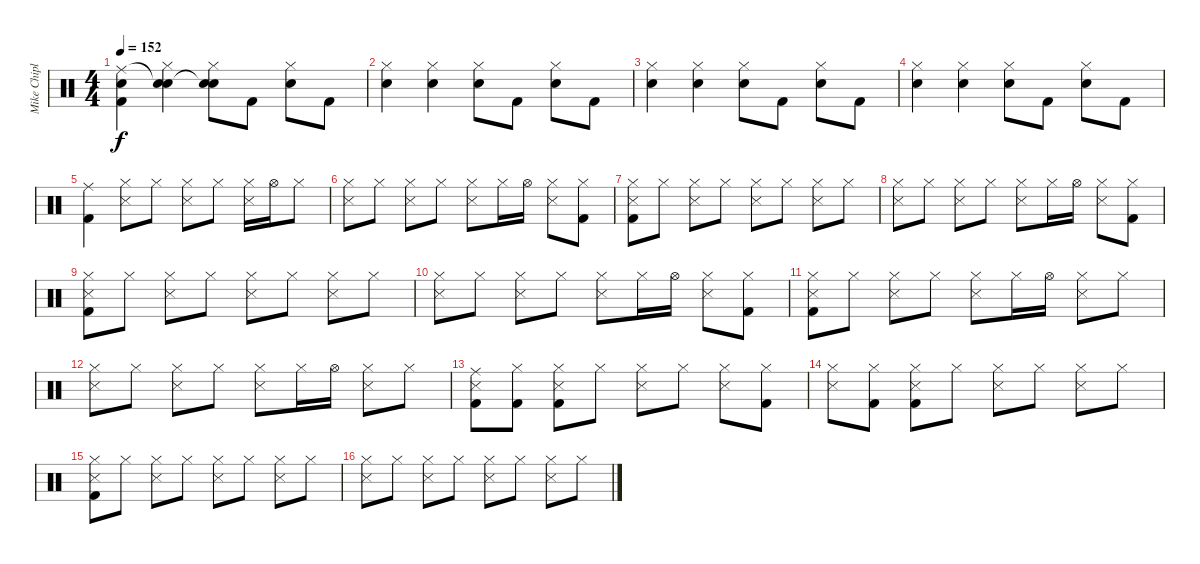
\track ("Mike Chiplin" "Mike Chipl") {instrument percussion}
\staff {score}
\articulation defaults
\ts (4 4)
\tempo 152
\clef neutral
\ks c
("Ride (middle)" "Snare (hit) 2" "Kick (hit) 2").4{dy f} ("Snare (hit)"{t} "Hi-Hat (closed)" "Snare (hit) 2").4 ("Snare (hit)"{t} "Hi-Hat (closed)" "Snare (hit) 2").8 "Kick (hit) 2".8 ("Hi-Hat (closed)" "Snare (hit) 2").8 "Kick (hit) 2".8 |
("Hi-Hat (closed)" "Snare (hit) 2").4 ("Hi-Hat (closed)" "Snare (hit) 2").4 ("Hi-Hat (closed)" "Snare (hit) 2").8 "Kick (hit) 2".8 ("Hi-Hat (closed)" "Snare (hit) 2").8 "Kick (hit) 2".8 |
("Hi-Hat (closed)" "Snare (hit) 2").4 ("Hi-Hat (closed)" "Snare (hit) 2").4 ("Hi-Hat (closed)" "Snare (hit) 2").8 "Kick (hit) 2".8 ("Hi-Hat (closed)" "Snare (hit) 2").8 "Kick (hit) 2".8 |
("Hi-Hat (closed)" "Snare (hit) 2").4 ("Hi-Hat (closed)" "Snare (hit) 2").4 ("Hi-Hat (closed)" "Snare (hit) 2").8 "Kick (hit) 2".8 ("Hi-Hat (closed)" "Snare (hit) 2").8 "Kick (hit) 2".8 |
("Ride (middle)" "Kick (hit) 2").4 ("Hi-Hat (closed)" "Snare (side stick) 3").8 "Hi-Hat (closed)".8 ("Hi-Hat (closed)" "Snare (side stick) 3").8 "Hi-Hat (closed)".8 ("Hi-Hat (closed)" "Snare (side stick) 3").16 "Hi-Hat (open)".16 "Hi-Hat (closed)".8 |
("Hi-Hat (closed)" "Snare (side stick) 3").8 "Hi-Hat (closed)".8 ("Hi-Hat (closed)" "Snare (side stick) 3").8 "Hi-Hat (closed)".8 ("Hi-Hat (closed)" "Snare (side stick) 3").8 "Hi-Hat (closed)".16 "Hi-Hat (open)".16 ("Hi-Hat (closed)" "Snare (side stick) 3").8 ("Hi-Hat (closed)" "Kick (hit) 2").8 |
("Hi-Hat (closed)" "Snare (side stick) 3" "Kick (hit) 2").8 "Hi-Hat (closed)".8 ("Hi-Hat (closed)" "Snare (side stick) 3").8 "Hi-Hat (closed)".8 ("Hi-Hat (closed)" "Snare (side stick) 3").8 "Hi-Hat (closed)".8 ("Hi-Hat (closed)" "Snare (side stick) 3").8 "Hi-Hat (closed)".8 |
("Hi-Hat (closed)" "Snare (side stick) 3").8 "Hi-Hat (closed)".8 ("Hi-Hat (closed)" "Snare (side stick) 3").8 "Hi-Hat (closed)".8 ("Hi-Hat (closed)" "Snare (side stick) 3").8 "Hi-Hat (closed)".16 "Hi-Hat (open)".16 ("Hi-Hat (closed)" "Snare (side stick) 3").8 ("Hi-Hat (closed)" "Kick (hit) 2").8 |
("Hi-Hat (closed)" "Snare (side stick) 3" "Kick (hit) 2").8 "Hi-Hat (closed)".8 ("Hi-Hat (closed)" "Snare (side stick) 3").8 "Hi-Hat (closed)".8 ("Hi-Hat (closed)" "Snare (side stick) 3").8 "Hi-Hat (closed)".8 ("Hi-Hat (closed)" "Snare (side stick) 3").8 "Hi-Hat (closed)".8 |
("Hi-Hat (closed)" "Snare (side stick) 3").8 "Hi-Hat (closed)".8 ("Hi-Hat (closed)" "Snare (side stick) 3").8 "Hi-Hat (closed)".8 ("Hi-Hat (closed)" "Snare (side stick) 3").8 "Hi-Hat (closed)".16 "Hi-Hat (open)".16 ("Hi-Hat (closed)" "Snare (side stick) 3").8 ("Hi-Hat (closed)" "Kick (hit) 2").8 |
("Hi-Hat (closed)" "Snare (side stick) 3" "Kick (hit) 2").8 "Hi-Hat (closed)".8 ("Hi-Hat (closed)" "Snare (side stick) 3").8 "Hi-Hat (closed)".8 ("Hi-Hat (closed)" "Snare (side stick) 3").8 "Hi-Hat (closed)".16 "Hi-Hat (open)".16 ("Hi-Hat (closed)" "Snare (side stick) 3").8 "Hi-Hat (closed)".8 |
("Hi-Hat (closed)" "Snare (side stick) 3").8 "Hi-Hat (closed)".8 ("Hi-Hat (closed)" "Snare (side stick) 3").8 "Hi-Hat (closed)".8 ("Hi-Hat (closed)" "Snare (side stick) 3").8 "Hi-Hat (closed)".16 "Hi-Hat (open)".16 ("Hi-Hat (closed)" "Snare (side stick) 3").8 "Hi-Hat (closed)".8 |
("Ride (middle)" "Snare (side stick) 3" "Kick (hit) 2").8 ("Hi-Hat (closed)" "Kick (hit) 2").8 ("Hi-Hat (closed)" "Snare (side stick) 3" "Kick (hit) 2").8 "Hi-Hat (closed)".8 ("Hi-Hat (closed)" "Snare (side stick) 3").8 "Hi-Hat (closed)".8 ("Hi-Hat (closed)" "Snare (side stick) 3").8 ("Hi-Hat (closed)" "Kick (hit) 2").8 |
("Hi-Hat (closed)" "Snare (side stick) 3").8 ("Hi-Hat (closed)" "Kick (hit) 2").8 ("Hi-Hat (closed)" "Snare (side stick) 3" "Kick (hit) 2").8 "Hi-Hat (closed)".8 ("Hi-Hat (closed)" "Snare (side stick) 3").8 "Hi-Hat (closed)".8 ("Hi-Hat (closed)" "Snare (side stick) 3").8 "Hi-Hat (closed)".8 |
("Hi-Hat (closed)" "Snare (side stick) 3" "Kick (hit) 2").8 "Hi-Hat (closed)".8 ("Hi-Hat (closed)" "Snare (side stick) 3").8 "Hi-Hat (closed)".8 ("Hi-Hat (closed)" "Snare (side stick) 3").8 "Hi-Hat (closed)".8 ("Hi-Hat (closed)" "Snare (side stick) 3").8 "Hi-Hat (closed)".8 |
("Hi-Hat (closed)" "Snare (side stick) 3").8 "Hi-Hat (closed)".8 ("Hi-Hat (closed)" "Snare (side stick) 3").8 "Hi-Hat (closed)".8 ("Hi-Hat (closed)" "Snare (side stick) 3").8 "Hi-Hat (closed)".8 ("Hi-Hat (closed)" "Snare (side stick) 3").8 "Hi-Hat (closed)".8
